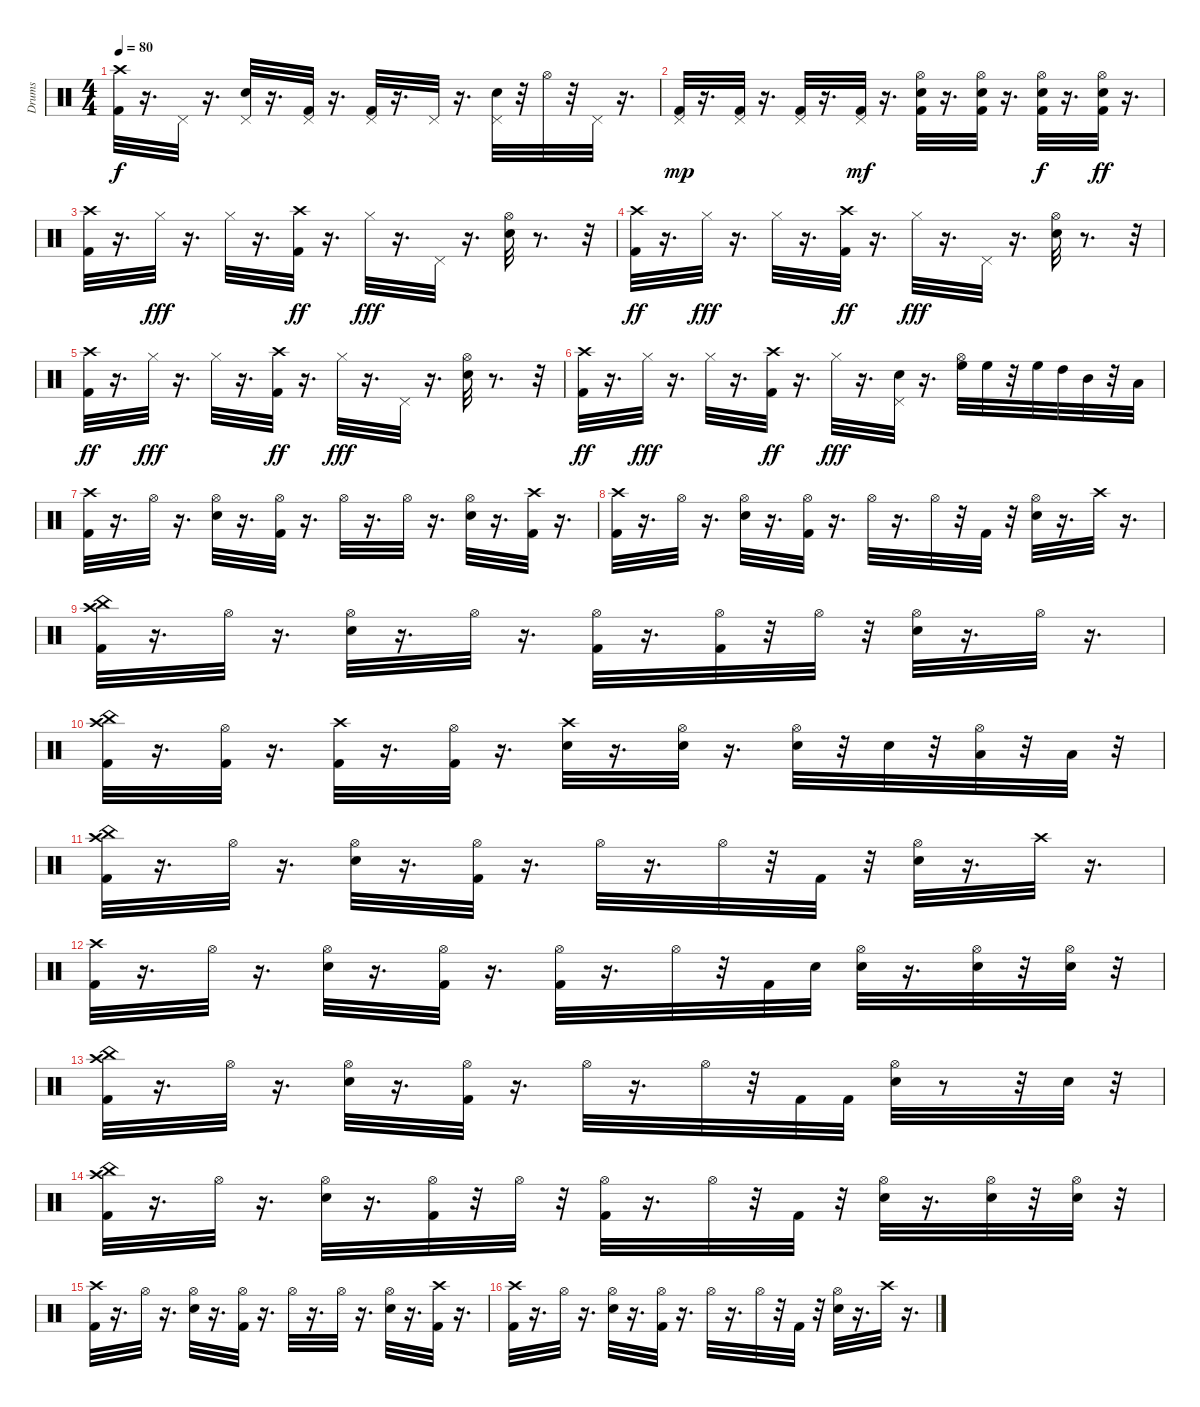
\track ("Drums" "Drums") {instrument percussion}
\staff {score}
\articulation defaults
\ts (4 4)
\tempo 80
\clef neutral
\ks c
("Crash high (hit)" "Kick (hit) 2").32{dy f} r.16{d} "Pedal Hi-Hat (hit)".32 r.16{d} ("Pedal Hi-Hat (hit)" "Snare (hit) 2").32 r.16{d} ("Pedal Hi-Hat (hit)" "Kick (hit) 2").32 r.16{d} ("Pedal Hi-Hat (hit)" "Kick (hit) 2").32 r.16{d} "Pedal Hi-Hat (hit)".32 r.16{d} ("Pedal Hi-Hat (hit)" "Snare (hit) 2").32 r.32 "Hi-Hat (open)".32 r.32 "Pedal Hi-Hat (hit)".32 r.16{d} |
("Pedal Hi-Hat (hit)" "Kick (hit) 2").32{dy mp} r.16{d} ("Pedal Hi-Hat (hit)" "Kick (hit) 2").32 r.16{d} ("Pedal Hi-Hat (hit)" "Kick (hit) 2").32 r.16{d} ("Pedal Hi-Hat (hit)" "Kick (hit) 2").32{dy mf} r.16{d} ("Hi-Hat (open)" "Kick (hit) 2" "Snare (hit) 2").32 r.16{d} ("Hi-Hat (open)" "Kick (hit) 2" "Snare (hit) 2").32 r.16{d} ("Hi-Hat (open)" "Kick (hit) 2" "Snare (hit) 2").32{dy f} r.16{d} ("Snare (hit) 2" "Kick (hit) 2" "Hi-Hat (open)").32{dy ff} r.16{d} |
("Crash high (hit)" "Kick (hit) 2").32 r.16{d} "Hi-Hat (closed)".32{dy fff} r.16{d} "Hi-Hat (closed)".32 r.16{d} ("Crash high (hit)" "Kick (hit) 2").32{dy ff} r.16{d} "Hi-Hat (closed)".32{dy fff} r.16{d} "Pedal Hi-Hat (hit)".32 r.16{d} ("Hi-Hat (open)" "Snare (hit) 2").32 r.8{d} r.32 |
("Crash high (hit)" "Kick (hit) 2").32{dy ff} r.16{d} "Hi-Hat (closed)".32{dy fff} r.16{d} "Hi-Hat (closed)".32 r.16{d} ("Crash high (hit)" "Kick (hit) 2").32{dy ff} r.16{d} "Hi-Hat (closed)".32{dy fff} r.16{d} "Pedal Hi-Hat (hit)".32 r.16{d} ("Hi-Hat (open)" "Snare (hit) 2").32 r.8{d} r.32 |
("Crash high (hit)" "Kick (hit) 2").32{dy ff} r.16{d} "Hi-Hat (closed)".32{dy fff} r.16{d} "Hi-Hat (closed)".32 r.16{d} ("Crash high (hit)" "Kick (hit) 2").32{dy ff} r.16{d} "Hi-Hat (closed)".32{dy fff} r.16{d} "Pedal Hi-Hat (hit)".32 r.16{d} ("Hi-Hat (open)" "Snare (hit) 2").32 r.8{d} r.32 |
("Crash high (hit)" "Kick (hit) 2").32{dy ff} r.16{d} "Hi-Hat (closed)".32{dy fff} r.16{d} "Hi-Hat (closed)".32 r.16{d} ("Crash high (hit)" "Kick (hit) 2").32{dy ff} r.16{d} "Hi-Hat (closed)".32{dy fff} r.16{d} ("Snare (hit) 2" "Pedal Hi-Hat (hit)").32 r.16{d} ("Hi-Hat (open)" "High Floor Tom (hit)").32 "High Floor Tom (hit)".32 r.32 "High Floor Tom (hit)".32 "High Tom (hit)".32 "Mid Tom (hit)".32 r.32 "Low Tom (hit)".32 |
("Kick (hit) 2" "Crash high (hit)").32 r.16{d} "Hi-Hat (open)".32 r.16{d} ("Hi-Hat (open)" "Snare (hit) 2").32 r.16{d} ("Hi-Hat (open)" "Kick (hit) 2").32 r.16{d} "Hi-Hat (open)".32 r.16{d} "Hi-Hat (open)".32 r.16{d} ("Hi-Hat (open)" "Snare (hit) 2").32 r.16{d} ("Kick (hit) 2" "Crash high (hit)").32 r.16{d} |
("Crash high (hit)" "Kick (hit) 2").32 r.16{d} "Hi-Hat (open)".32 r.16{d} ("Hi-Hat (open)" "Snare (hit) 2").32 r.16{d} ("Hi-Hat (open)" "Kick (hit) 2").32 r.16{d} "Hi-Hat (open)".32 r.16{d} "Hi-Hat (open)".32 r.32 "Kick (hit) 2".32 r.32 ("Hi-Hat (open)" "Snare (hit) 2").32 r.16{d} "Crash high (hit)".32 r.16{d} |
("Kick (hit) 2" "China (hit)" "Crash high (hit)").32 r.16{d} "Hi-Hat (open)".32 r.16{d} ("Hi-Hat (open)" "Snare (hit) 2").32 r.16{d} "Hi-Hat (open)".32 r.16{d} ("Hi-Hat (open)" "Kick (hit) 2").32 r.16{d} ("Hi-Hat (open)" "Kick (hit) 2").32 r.32 "Hi-Hat (open)".32 r.32 ("Hi-Hat (open)" "Snare (hit) 2").32 r.16{d} "Hi-Hat (open)".32 r.16{d} |
("China (hit)" "Crash high (hit)" "Kick (hit) 2").32 r.16{d} ("Hi-Hat (open)" "Kick (hit) 2").32 r.16{d} ("Crash high (hit)" "Kick (hit) 2").32 r.16{d} ("Hi-Hat (open)" "Kick (hit) 2").32 r.16{d} ("Crash high (hit)" "Snare (hit) 2").32 r.16{d} ("Hi-Hat (open)" "Snare (hit) 2").32 r.16{d} ("Hi-Hat (open)" "Snare (hit) 2").32 r.32 "Snare (hit) 2".32 r.32 ("Hi-Hat (open)" "Low Tom (hit)").32 r.32 "Low Tom (hit)".32 r.32 |
("Kick (hit) 2" "China (hit)" "Crash high (hit)").32 r.16{d} "Hi-Hat (open)".32 r.16{d} ("Hi-Hat (open)" "Snare (hit) 2").32 r.16{d} ("Hi-Hat (open)" "Kick (hit) 2").32 r.16{d} "Hi-Hat (open)".32 r.16{d} "Hi-Hat (open)".32 r.32 "Kick (hit) 2".32 r.32 ("Hi-Hat (open)" "Snare (hit) 2").32 r.16{d} "Crash high (hit)".32 r.16{d} |
("Kick (hit) 2" "Crash high (hit)").32 r.16{d} "Hi-Hat (open)".32 r.16{d} ("Snare (hit) 2" "Hi-Hat (open)").32 r.16{d} ("Kick (hit) 2" "Hi-Hat (open)").32 r.16{d} ("Kick (hit) 2" "Hi-Hat (open)").32 r.16{d} "Hi-Hat (open)".32 r.32 "Kick (hit) 2".32 "Snare (hit) 2".32 ("Snare (hit) 2" "Hi-Hat (open)").32 r.16{d} ("Snare (hit) 2" "Hi-Hat (open)").32 r.32 ("Snare (hit) 2" "Hi-Hat (open)").32 r.32 |
("China (hit)" "Crash high (hit)" "Kick (hit) 2").32 r.16{d} "Hi-Hat (open)".32 r.16{d} ("Hi-Hat (open)" "Snare (hit) 2").32 r.16{d} ("Hi-Hat (open)" "Kick (hit) 2").32 r.16{d} "Hi-Hat (open)".32 r.16{d} "Hi-Hat (open)".32 r.32 "Kick (hit) 2".32 "Kick (hit) 2".32 ("Hi-Hat (open)" "Snare (hit) 2").32 r.8 r.32 "Snare (hit) 2".32 r.32 |
("China (hit)" "Crash high (hit)" "Kick (hit) 2").32 r.16{d} "Hi-Hat (open)".32 r.16{d} ("Hi-Hat (open)" "Snare (hit) 2").32 r.16{d} ("Hi-Hat (open)" "Kick (hit) 2").32 r.32 "Hi-Hat (open)".32 r.32 ("Hi-Hat (open)" "Kick (hit) 2").32 r.16{d} "Hi-Hat (open)".32 r.32 "Kick (hit) 2".32 r.32 ("Hi-Hat (open)" "Snare (hit) 2").32 r.16{d} ("Hi-Hat (open)" "Snare (hit) 2").32 r.32 ("Hi-Hat (open)" "Snare (hit) 2").32 r.32 |
("Kick (hit) 2" "Crash high (hit)").32 r.16{d} "Hi-Hat (open)".32 r.16{d} ("Hi-Hat (open)" "Snare (hit) 2").32 r.16{d} ("Hi-Hat (open)" "Kick (hit) 2").32 r.16{d} "Hi-Hat (open)".32 r.16{d} "Hi-Hat (open)".32 r.16{d} ("Hi-Hat (open)" "Snare (hit) 2").32 r.16{d} ("Kick (hit) 2" "Crash high (hit)").32 r.16{d} |
("Crash high (hit)" "Kick (hit) 2").32 r.16{d} "Hi-Hat (open)".32 r.16{d} ("Hi-Hat (open)" "Snare (hit) 2").32 r.16{d} ("Hi-Hat (open)" "Kick (hit) 2").32 r.16{d} "Hi-Hat (open)".32 r.16{d} "Hi-Hat (open)".32 r.32 "Kick (hit) 2".32 r.32 ("Hi-Hat (open)" "Snare (hit) 2").32 r.16{d} "Crash high (hit)".32 r.16{d}
